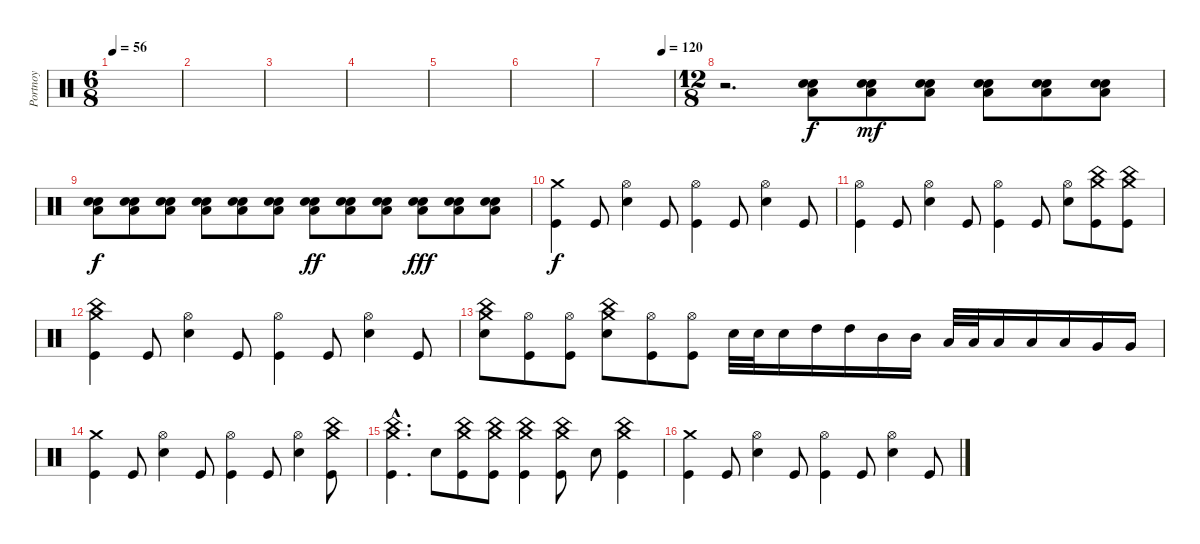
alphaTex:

\track ("Portnoy" "Portnoy") {instrument percussion}
\staff {score}
\articulation defaults
\ts (6 8)
\tempo 56
\clef neutral
\ks c
|
|
|
|
|
|
\tempo (120 0.8333333333333334)
|
\ts (12 8)
r.2{d} ("Snare (hit) 2" "Electric Snare (hit)" "Low Tom (hit)").8 ("Snare (hit) 2" "Electric Snare (hit)" "Low Tom (hit)").8{dy mf} ("Snare (hit) 2" "Electric Snare (hit)" "Low Tom (hit)").8 ("Snare (hit) 2" "Electric Snare (hit)" "Low Tom (hit)").8 ("Snare (hit) 2" "Electric Snare (hit)" "Low Tom (hit)").8 ("Snare (hit) 2" "Electric Snare (hit)" "Low Tom (hit)").8 |
("Snare (hit) 2" "Electric Snare (hit)" "Low Tom (hit)").8{dy f} ("Snare (hit) 2" "Electric Snare (hit)" "Low Tom (hit)").8 ("Snare (hit) 2" "Electric Snare (hit)" "Low Tom (hit)").8 ("Snare (hit) 2" "Electric Snare (hit)" "Low Tom (hit)").8 ("Snare (hit) 2" "Electric Snare (hit)" "Low Tom (hit)").8 ("Snare (hit) 2" "Electric Snare (hit)" "Low Tom (hit)").8 ("Snare (hit) 2" "Electric Snare (hit)" "Low Tom (hit)").8{dy ff} ("Snare (hit) 2" "Electric Snare (hit)" "Low Tom (hit)").8 ("Snare (hit) 2" "Electric Snare (hit)" "Low Tom (hit)").8 ("Snare (hit) 2" "Electric Snare (hit)" "Low Tom (hit)").8{dy fff} ("Snare (hit) 2" "Electric Snare (hit)" "Low Tom (hit)").8 ("Snare (hit) 2" "Electric Snare (hit)" "Low Tom (hit)").8 |
("Crash medium (hit)" "Kick (hit)").4{dy f} "Kick (hit)".8 ("Hi-Hat (open)" "Snare (hit) 2").4 "Kick (hit)".8 ("Hi-Hat (open)" "Kick (hit)").4 "Kick (hit)".8 ("Hi-Hat (open)" "Snare (hit) 2").4 "Kick (hit)".8 |
("Hi-Hat (open)" "Kick (hit)").4 "Kick (hit)".8 ("Hi-Hat (open)" "Snare (hit) 2").4 "Kick (hit)".8 ("Hi-Hat (open)" "Kick (hit)").4 "Kick (hit)".8 ("Hi-Hat (open)" "Snare (hit) 2").8 ("Crash medium (hit)" "Kick (hit)" "China (hit)").8 ("Crash medium (hit)" "Kick (hit)" "China (hit)").8 |
("Crash medium (hit)" "Kick (hit)" "China (hit)").4 "Kick (hit)".8 ("Hi-Hat (open)" "Snare (hit) 2").4 "Kick (hit)".8 ("Hi-Hat (open)" "Kick (hit)").4 "Kick (hit)".8 ("Hi-Hat (open)" "Snare (hit) 2").4 "Kick (hit)".8 |
("Crash medium (hit)" "Snare (hit) 2" "China (hit)").8 ("Hi-Hat (open)" "Kick (hit)").8 ("Hi-Hat (open)" "Kick (hit)").8 ("Crash medium (hit)" "Snare (hit) 2" "China (hit)").8 ("Hi-Hat (open)" "Kick (hit)").8 ("Hi-Hat (open)" "Kick (hit)").8 "Snare (hit) 2".32 "Snare (hit) 2".32 "Snare (hit) 2".16 "High Tom (hit)".16 "High Tom (hit)".16 "Mid Tom (hit)".16 "Mid Tom (hit)".16 "Low Tom (hit)".32 "Low Tom (hit)".32 "Low Tom (hit)".16 "Low Tom (hit)".16 "Low Tom (hit)".16 "Very Low Tom (hit)".16 "Very Low Tom (hit)".16 |
("Crash medium (hit)" "Kick (hit)").4 "Kick (hit)".8 ("Hi-Hat (open)" "Snare (hit) 2").4 "Kick (hit)".8 ("Hi-Hat (open)" "Kick (hit)").4 "Kick (hit)".8 ("Hi-Hat (open)" "Snare (hit) 2").4 ("Crash medium (hit)" "Kick (hit)" "China (hit)").8 |
("Crash medium (hit)"{hac} "Kick (hit)"{hac} "China (hit)"{hac}).4{d} "Snare (hit) 2".8 ("Crash medium (hit)" "Kick (hit)" "China (hit)").8 ("Crash medium (hit)" "Kick (hit)" "China (hit)").8 ("Crash medium (hit)" "Kick (hit)" "China (hit)").4 ("Crash medium (hit)" "Kick (hit)" "China (hit)").8 "Snare (hit) 2".8 ("Crash medium (hit)" "Kick (hit)" "China (hit)").4 |
("Crash medium (hit)" "Kick (hit)").4 "Kick (hit)".8 ("Hi-Hat (open)" "Snare (hit) 2").4 "Kick (hit)".8 ("Hi-Hat (open)" "Kick (hit)").4 "Kick (hit)".8 ("Hi-Hat (open)" "Snare (hit) 2").4 "Kick (hit)".8
